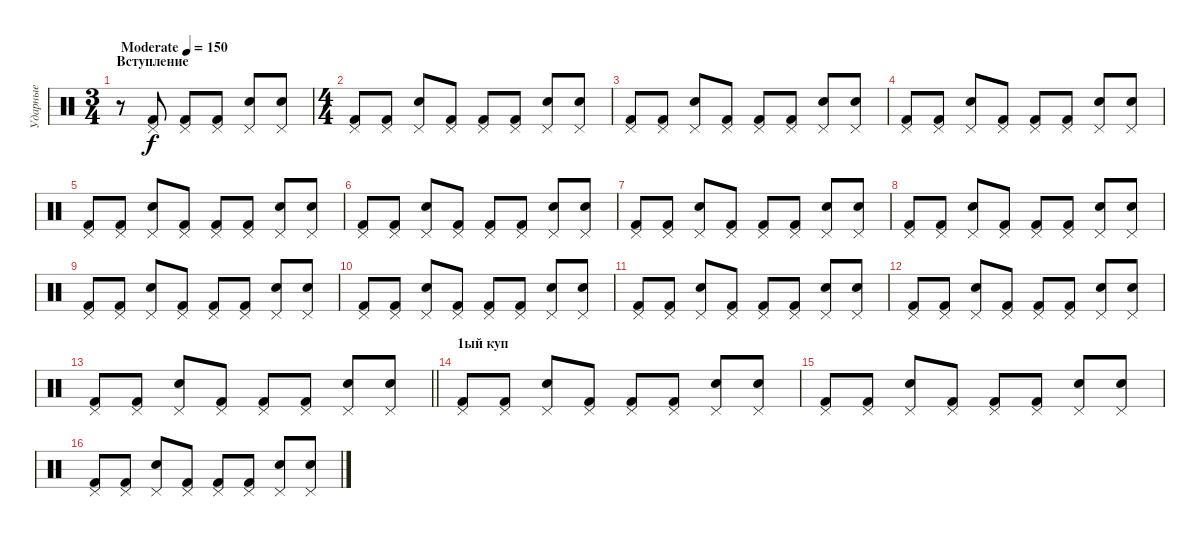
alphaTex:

\track ("Ударные" "Ударные") {instrument percussion}
\staff {score}
\articulation defaults
\ts (3 4)
\section ("" "Вступление")
\tempo (150 "Moderate")
\clef neutral
\ks c
r.8{dy f} ("Pedal Hi-Hat (hit)" "Kick (hit) 2").8 ("Pedal Hi-Hat (hit)" "Kick (hit) 2").8 ("Pedal Hi-Hat (hit)" "Kick (hit) 2").8 ("Pedal Hi-Hat (hit)" "Electric Snare (hit)").8 ("Pedal Hi-Hat (hit)" "Electric Snare (hit)").8 |
\ts (4 4)
("Pedal Hi-Hat (hit)" "Kick (hit) 2").8 ("Pedal Hi-Hat (hit)" "Kick (hit) 2").8 ("Pedal Hi-Hat (hit)" "Electric Snare (hit)").8 ("Pedal Hi-Hat (hit)" "Kick (hit) 2").8 ("Pedal Hi-Hat (hit)" "Kick (hit) 2").8 ("Pedal Hi-Hat (hit)" "Kick (hit) 2").8 ("Pedal Hi-Hat (hit)" "Electric Snare (hit)").8 ("Pedal Hi-Hat (hit)" "Electric Snare (hit)").8 |
("Pedal Hi-Hat (hit)" "Kick (hit) 2").8 ("Pedal Hi-Hat (hit)" "Kick (hit) 2").8 ("Pedal Hi-Hat (hit)" "Electric Snare (hit)").8 ("Pedal Hi-Hat (hit)" "Kick (hit) 2").8 ("Pedal Hi-Hat (hit)" "Kick (hit) 2").8 ("Pedal Hi-Hat (hit)" "Kick (hit) 2").8 ("Pedal Hi-Hat (hit)" "Electric Snare (hit)").8 ("Pedal Hi-Hat (hit)" "Electric Snare (hit)").8 |
("Pedal Hi-Hat (hit)" "Kick (hit) 2").8 ("Pedal Hi-Hat (hit)" "Kick (hit) 2").8 ("Pedal Hi-Hat (hit)" "Electric Snare (hit)").8 ("Pedal Hi-Hat (hit)" "Kick (hit) 2").8 ("Pedal Hi-Hat (hit)" "Kick (hit) 2").8 ("Pedal Hi-Hat (hit)" "Kick (hit) 2").8 ("Pedal Hi-Hat (hit)" "Electric Snare (hit)").8 ("Pedal Hi-Hat (hit)" "Electric Snare (hit)").8 |
("Pedal Hi-Hat (hit)" "Kick (hit) 2").8 ("Pedal Hi-Hat (hit)" "Kick (hit) 2").8 ("Pedal Hi-Hat (hit)" "Electric Snare (hit)").8 ("Pedal Hi-Hat (hit)" "Kick (hit) 2").8 ("Pedal Hi-Hat (hit)" "Kick (hit) 2").8 ("Pedal Hi-Hat (hit)" "Kick (hit) 2").8 ("Pedal Hi-Hat (hit)" "Electric Snare (hit)").8 ("Pedal Hi-Hat (hit)" "Electric Snare (hit)").8 |
("Pedal Hi-Hat (hit)" "Kick (hit) 2").8 ("Pedal Hi-Hat (hit)" "Kick (hit) 2").8 ("Pedal Hi-Hat (hit)" "Electric Snare (hit)").8 ("Pedal Hi-Hat (hit)" "Kick (hit) 2").8 ("Pedal Hi-Hat (hit)" "Kick (hit) 2").8 ("Pedal Hi-Hat (hit)" "Kick (hit) 2").8 ("Pedal Hi-Hat (hit)" "Electric Snare (hit)").8 ("Pedal Hi-Hat (hit)" "Electric Snare (hit)").8 |
("Pedal Hi-Hat (hit)" "Kick (hit) 2").8 ("Pedal Hi-Hat (hit)" "Kick (hit) 2").8 ("Pedal Hi-Hat (hit)" "Electric Snare (hit)").8 ("Pedal Hi-Hat (hit)" "Kick (hit) 2").8 ("Pedal Hi-Hat (hit)" "Kick (hit) 2").8 ("Pedal Hi-Hat (hit)" "Kick (hit) 2").8 ("Pedal Hi-Hat (hit)" "Electric Snare (hit)").8 ("Pedal Hi-Hat (hit)" "Electric Snare (hit)").8 |
("Pedal Hi-Hat (hit)" "Kick (hit) 2").8 ("Pedal Hi-Hat (hit)" "Kick (hit) 2").8 ("Pedal Hi-Hat (hit)" "Electric Snare (hit)").8 ("Pedal Hi-Hat (hit)" "Kick (hit) 2").8 ("Pedal Hi-Hat (hit)" "Kick (hit) 2").8 ("Pedal Hi-Hat (hit)" "Kick (hit) 2").8 ("Pedal Hi-Hat (hit)" "Electric Snare (hit)").8 ("Pedal Hi-Hat (hit)" "Electric Snare (hit)").8 |
("Pedal Hi-Hat (hit)" "Kick (hit) 2").8 ("Pedal Hi-Hat (hit)" "Kick (hit) 2").8 ("Pedal Hi-Hat (hit)" "Electric Snare (hit)").8 ("Pedal Hi-Hat (hit)" "Kick (hit) 2").8 ("Pedal Hi-Hat (hit)" "Kick (hit) 2").8 ("Pedal Hi-Hat (hit)" "Kick (hit) 2").8 ("Pedal Hi-Hat (hit)" "Electric Snare (hit)").8 ("Pedal Hi-Hat (hit)" "Electric Snare (hit)").8 |
("Pedal Hi-Hat (hit)" "Kick (hit) 2").8 ("Pedal Hi-Hat (hit)" "Kick (hit) 2").8 ("Pedal Hi-Hat (hit)" "Electric Snare (hit)").8 ("Pedal Hi-Hat (hit)" "Kick (hit) 2").8 ("Pedal Hi-Hat (hit)" "Kick (hit) 2").8 ("Pedal Hi-Hat (hit)" "Kick (hit) 2").8 ("Pedal Hi-Hat (hit)" "Electric Snare (hit)").8 ("Pedal Hi-Hat (hit)" "Electric Snare (hit)").8 |
("Pedal Hi-Hat (hit)" "Kick (hit) 2").8 ("Pedal Hi-Hat (hit)" "Kick (hit) 2").8 ("Pedal Hi-Hat (hit)" "Electric Snare (hit)").8 ("Pedal Hi-Hat (hit)" "Kick (hit) 2").8 ("Pedal Hi-Hat (hit)" "Kick (hit) 2").8 ("Pedal Hi-Hat (hit)" "Kick (hit) 2").8 ("Pedal Hi-Hat (hit)" "Electric Snare (hit)").8 ("Pedal Hi-Hat (hit)" "Electric Snare (hit)").8 |
("Pedal Hi-Hat (hit)" "Kick (hit) 2").8 ("Pedal Hi-Hat (hit)" "Kick (hit) 2").8 ("Pedal Hi-Hat (hit)" "Electric Snare (hit)").8 ("Pedal Hi-Hat (hit)" "Kick (hit) 2").8 ("Pedal Hi-Hat (hit)" "Kick (hit) 2").8 ("Pedal Hi-Hat (hit)" "Kick (hit) 2").8 ("Pedal Hi-Hat (hit)" "Electric Snare (hit)").8 ("Pedal Hi-Hat (hit)" "Electric Snare (hit)").8 |
\barLineRight lightlight
("Pedal Hi-Hat (hit)" "Kick (hit) 2").8 ("Pedal Hi-Hat (hit)" "Kick (hit) 2").8 ("Pedal Hi-Hat (hit)" "Electric Snare (hit)").8 ("Pedal Hi-Hat (hit)" "Kick (hit) 2").8 ("Pedal Hi-Hat (hit)" "Kick (hit) 2").8 ("Pedal Hi-Hat (hit)" "Kick (hit) 2").8 ("Pedal Hi-Hat (hit)" "Electric Snare (hit)").8 ("Pedal Hi-Hat (hit)" "Electric Snare (hit)").8 |
\section ("" "1ый куп")
("Pedal Hi-Hat (hit)" "Kick (hit) 2").8 ("Pedal Hi-Hat (hit)" "Kick (hit) 2").8 ("Pedal Hi-Hat (hit)" "Electric Snare (hit)").8 ("Pedal Hi-Hat (hit)" "Kick (hit) 2").8 ("Pedal Hi-Hat (hit)" "Kick (hit) 2").8 ("Pedal Hi-Hat (hit)" "Kick (hit) 2").8 ("Pedal Hi-Hat (hit)" "Electric Snare (hit)").8 ("Pedal Hi-Hat (hit)" "Electric Snare (hit)").8 |
("Pedal Hi-Hat (hit)" "Kick (hit) 2").8 ("Pedal Hi-Hat (hit)" "Kick (hit) 2").8 ("Pedal Hi-Hat (hit)" "Electric Snare (hit)").8 ("Pedal Hi-Hat (hit)" "Kick (hit) 2").8 ("Pedal Hi-Hat (hit)" "Kick (hit) 2").8 ("Pedal Hi-Hat (hit)" "Kick (hit) 2").8 ("Pedal Hi-Hat (hit)" "Electric Snare (hit)").8 ("Pedal Hi-Hat (hit)" "Electric Snare (hit)").8 |
("Pedal Hi-Hat (hit)" "Kick (hit) 2").8 ("Pedal Hi-Hat (hit)" "Kick (hit) 2").8 ("Pedal Hi-Hat (hit)" "Electric Snare (hit)").8 ("Pedal Hi-Hat (hit)" "Kick (hit) 2").8 ("Pedal Hi-Hat (hit)" "Kick (hit) 2").8 ("Pedal Hi-Hat (hit)" "Kick (hit) 2").8 ("Pedal Hi-Hat (hit)" "Electric Snare (hit)").8 ("Pedal Hi-Hat (hit)" "Electric Snare (hit)").8
